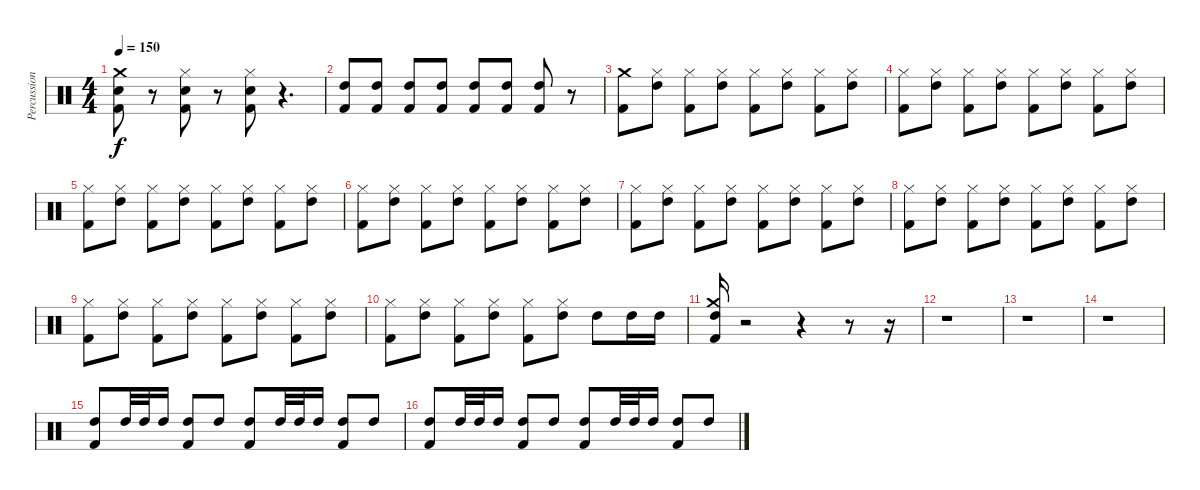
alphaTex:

\track ("Percussions" "Percussion") {instrument percussion}
\staff {score}
\articulation defaults
\ts (4 4)
\tempo 150
\clef neutral
\ks c
("Kick (hit) 2" "Snare (hit) 2" "Crash medium (hit)").8{dy f} r.8 ("Kick (hit) 2" "Snare (hit) 2" "Hi-Hat (closed)").8 r.8 ("Kick (hit) 2" "Snare (hit) 2" "Hi-Hat (closed)").8 r.4{d} |
("Kick (hit) 2" "High Tom (hit)").8 ("Kick (hit) 2" "High Tom (hit)").8 ("Kick (hit) 2" "High Tom (hit)").8 ("Kick (hit) 2" "High Tom (hit)").8 ("Kick (hit) 2" "High Tom (hit)").8 ("Kick (hit) 2" "High Tom (hit)").8 ("Kick (hit) 2" "High Tom (hit)").8 r.8 |
("Kick (hit) 2" "Crash medium (hit)").8 ("High Tom (hit)" "Hi-Hat (closed)").8 ("Kick (hit) 2" "Hi-Hat (closed)").8 ("High Tom (hit)" "Hi-Hat (closed)").8 ("Kick (hit) 2" "Hi-Hat (closed)").8 ("High Tom (hit)" "Hi-Hat (closed)").8 ("Kick (hit) 2" "Hi-Hat (closed)").8 ("High Tom (hit)" "Hi-Hat (closed)").8 |
("Kick (hit) 2" "Hi-Hat (closed)").8 ("High Tom (hit)" "Hi-Hat (closed)").8 ("Kick (hit) 2" "Hi-Hat (closed)").8 ("High Tom (hit)" "Hi-Hat (closed)").8 ("Kick (hit) 2" "Hi-Hat (closed)").8 ("High Tom (hit)" "Hi-Hat (closed)").8 ("Kick (hit) 2" "Hi-Hat (closed)").8 ("High Tom (hit)" "Hi-Hat (closed)").8 |
("Kick (hit) 2" "Hi-Hat (closed)").8 ("High Tom (hit)" "Hi-Hat (closed)").8 ("Kick (hit) 2" "Hi-Hat (closed)").8 ("High Tom (hit)" "Hi-Hat (closed)").8 ("Kick (hit) 2" "Hi-Hat (closed)").8 ("High Tom (hit)" "Hi-Hat (closed)").8 ("Kick (hit) 2" "Hi-Hat (closed)").8 ("High Tom (hit)" "Hi-Hat (closed)").8 |
("Kick (hit) 2" "Hi-Hat (closed)").8 ("High Tom (hit)" "Hi-Hat (closed)").8 ("Kick (hit) 2" "Hi-Hat (closed)").8 ("High Tom (hit)" "Hi-Hat (closed)").8 ("Kick (hit) 2" "Hi-Hat (closed)").8 ("High Tom (hit)" "Hi-Hat (closed)").8 ("Kick (hit) 2" "Hi-Hat (closed)").8 ("High Tom (hit)" "Hi-Hat (closed)").8 |
("Kick (hit) 2" "Hi-Hat (closed)").8 ("High Tom (hit)" "Hi-Hat (closed)").8 ("Kick (hit) 2" "Hi-Hat (closed)").8 ("High Tom (hit)" "Hi-Hat (closed)").8 ("Kick (hit) 2" "Hi-Hat (closed)").8 ("High Tom (hit)" "Hi-Hat (closed)").8 ("Kick (hit) 2" "Hi-Hat (closed)").8 ("High Tom (hit)" "Hi-Hat (closed)").8 |
("Kick (hit) 2" "Hi-Hat (closed)").8 ("High Tom (hit)" "Hi-Hat (closed)").8 ("Kick (hit) 2" "Hi-Hat (closed)").8 ("High Tom (hit)" "Hi-Hat (closed)").8 ("Kick (hit) 2" "Hi-Hat (closed)").8 ("High Tom (hit)" "Hi-Hat (closed)").8 ("Kick (hit) 2" "Hi-Hat (closed)").8 ("High Tom (hit)" "Hi-Hat (closed)").8 |
("Kick (hit) 2" "Hi-Hat (closed)").8 ("High Tom (hit)" "Hi-Hat (closed)").8 ("Kick (hit) 2" "Hi-Hat (closed)").8 ("High Tom (hit)" "Hi-Hat (closed)").8 ("Kick (hit) 2" "Hi-Hat (closed)").8 ("High Tom (hit)" "Hi-Hat (closed)").8 ("Kick (hit) 2" "Hi-Hat (closed)").8 ("High Tom (hit)" "Hi-Hat (closed)").8 |
("Kick (hit) 2" "Hi-Hat (closed)").8 ("High Tom (hit)" "Hi-Hat (closed)").8 ("Kick (hit) 2" "Hi-Hat (closed)").8 ("High Tom (hit)" "Hi-Hat (closed)").8 ("Kick (hit) 2" "Hi-Hat (closed)").8 ("High Tom (hit)" "Hi-Hat (closed)").8 "High Tom (hit)".8 "High Tom (hit)".16 "High Tom (hit)".16 |
("Kick (hit) 2" "High Tom (hit)" "Crash medium (hit)").16 r.2 r.4 r.8 r.16 |
r.1 |
r.1 |
r.1 |
("Kick (hit) 2" "High Tom (hit)").8 "High Tom (hit)".32 "High Tom (hit)".32 "High Tom (hit)".16 ("Kick (hit) 2" "High Tom (hit)").8 "High Tom (hit)".8 ("Kick (hit) 2" "High Tom (hit)").8 "High Tom (hit)".32 "High Tom (hit)".32 "High Tom (hit)".16 ("Kick (hit) 2" "High Tom (hit)").8 "High Tom (hit)".8 |
("Kick (hit) 2" "High Tom (hit)").8 "High Tom (hit)".32 "High Tom (hit)".32 "High Tom (hit)".16 ("Kick (hit) 2" "High Tom (hit)").8 "High Tom (hit)".8 ("Kick (hit) 2" "High Tom (hit)").8 "High Tom (hit)".32 "High Tom (hit)".32 "High Tom (hit)".16 ("Kick (hit) 2" "High Tom (hit)").8 "High Tom (hit)".8
